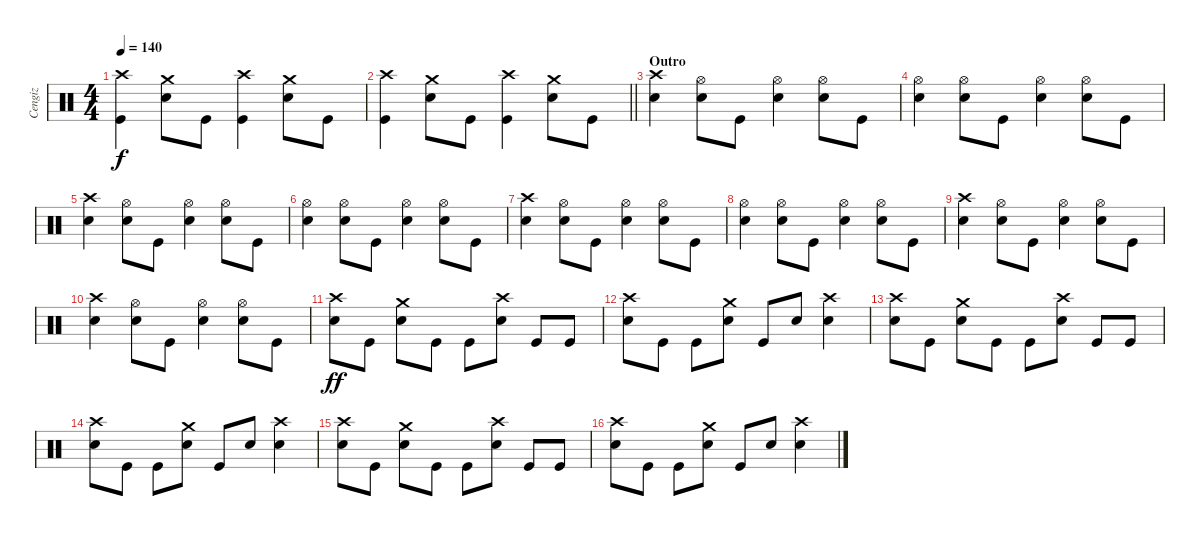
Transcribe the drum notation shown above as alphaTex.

\track ("Cengiz" "Cengiz") {instrument percussion}
\staff {score}
\articulation defaults
\ts (4 4)
\tempo 140
\clef neutral
\ks c
("Crash high (hit)" "Kick (hit)").4{dy f} ("Crash medium (hit)" "Electric Snare (hit)").8 "Kick (hit)".8 ("Crash high (hit)" "Kick (hit)").4 ("Crash medium (hit)" "Electric Snare (hit)").8 "Kick (hit)".8 |
\barLineRight lightlight
("Crash high (hit)" "Kick (hit)").4 ("Crash medium (hit)" "Electric Snare (hit)").8 "Kick (hit)".8 ("Crash high (hit)" "Kick (hit)").4 ("Crash medium (hit)" "Electric Snare (hit)").8 "Kick (hit)".8 |
\section ("" "Outro")
("Crash high (hit)" "Electric Snare (hit)").4 ("Hi-Hat (open)" "Electric Snare (hit)").8 "Kick (hit)".8 ("Hi-Hat (open)" "Electric Snare (hit)").4 ("Hi-Hat (open)" "Electric Snare (hit)").8 "Kick (hit)".8 |
("Hi-Hat (open)" "Electric Snare (hit)").4 ("Hi-Hat (open)" "Electric Snare (hit)").8 "Kick (hit)".8 ("Hi-Hat (open)" "Electric Snare (hit)").4 ("Hi-Hat (open)" "Electric Snare (hit)").8 "Kick (hit)".8 |
("Crash high (hit)" "Electric Snare (hit)").4 ("Hi-Hat (open)" "Electric Snare (hit)").8 "Kick (hit)".8 ("Hi-Hat (open)" "Electric Snare (hit)").4 ("Hi-Hat (open)" "Electric Snare (hit)").8 "Kick (hit)".8 |
("Hi-Hat (open)" "Electric Snare (hit)").4 ("Hi-Hat (open)" "Electric Snare (hit)").8 "Kick (hit)".8 ("Hi-Hat (open)" "Electric Snare (hit)").4 ("Hi-Hat (open)" "Electric Snare (hit)").8 "Kick (hit)".8 |
("Crash high (hit)" "Electric Snare (hit)").4 ("Hi-Hat (open)" "Electric Snare (hit)").8 "Kick (hit)".8 ("Hi-Hat (open)" "Electric Snare (hit)").4 ("Hi-Hat (open)" "Electric Snare (hit)").8 "Kick (hit)".8 |
("Hi-Hat (open)" "Electric Snare (hit)").4 ("Hi-Hat (open)" "Electric Snare (hit)").8 "Kick (hit)".8 ("Hi-Hat (open)" "Electric Snare (hit)").4 ("Hi-Hat (open)" "Electric Snare (hit)").8 "Kick (hit)".8 |
("Crash high (hit)" "Electric Snare (hit)").4 ("Hi-Hat (open)" "Electric Snare (hit)").8 "Kick (hit)".8 ("Hi-Hat (open)" "Electric Snare (hit)").4 ("Hi-Hat (open)" "Electric Snare (hit)").8 "Kick (hit)".8 |
("Crash high (hit)" "Electric Snare (hit)").4 ("Hi-Hat (open)" "Electric Snare (hit)").8 "Kick (hit)".8 ("Hi-Hat (open)" "Electric Snare (hit)").4 ("Hi-Hat (open)" "Electric Snare (hit)").8 "Kick (hit)".8 |
("Crash high (hit)" "Electric Snare (hit)").8{dy ff} "Kick (hit)".8 ("Crash medium (hit)" "Electric Snare (hit)").8 "Kick (hit)".8 "Kick (hit)".8 ("Crash high (hit)" "Electric Snare (hit)").8 "Kick (hit)".8 "Kick (hit)".8 |
("Crash high (hit)" "Electric Snare (hit)").8 "Kick (hit)".8 "Kick (hit)".8 ("Crash medium (hit)" "Electric Snare (hit)").8 "Kick (hit)".8 "Electric Snare (hit)".8 ("Crash high (hit)" "Electric Snare (hit)").4 |
("Crash high (hit)" "Electric Snare (hit)").8 "Kick (hit)".8 ("Crash medium (hit)" "Electric Snare (hit)").8 "Kick (hit)".8 "Kick (hit)".8 ("Crash high (hit)" "Electric Snare (hit)").8 "Kick (hit)".8 "Kick (hit)".8 |
("Crash high (hit)" "Electric Snare (hit)").8 "Kick (hit)".8 "Kick (hit)".8 ("Crash medium (hit)" "Electric Snare (hit)").8 "Kick (hit)".8 "Electric Snare (hit)".8 ("Crash high (hit)" "Electric Snare (hit)").4 |
("Crash high (hit)" "Electric Snare (hit)").8 "Kick (hit)".8 ("Crash medium (hit)" "Electric Snare (hit)").8 "Kick (hit)".8 "Kick (hit)".8 ("Crash high (hit)" "Electric Snare (hit)").8 "Kick (hit)".8 "Kick (hit)".8 |
("Crash high (hit)" "Electric Snare (hit)").8 "Kick (hit)".8 "Kick (hit)".8 ("Crash medium (hit)" "Electric Snare (hit)").8 "Kick (hit)".8 "Electric Snare (hit)".8 ("Crash high (hit)" "Electric Snare (hit)").4
